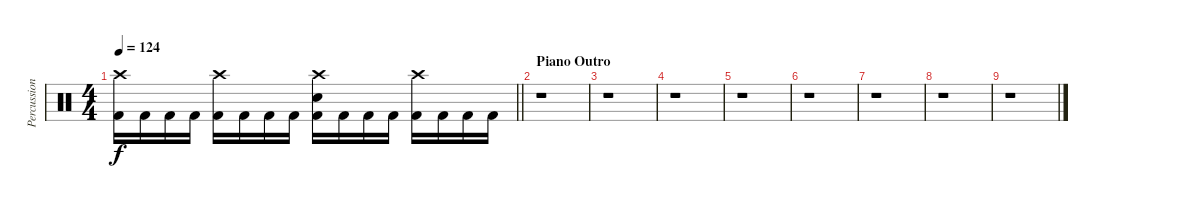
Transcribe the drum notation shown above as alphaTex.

\track ("Percussion" "Percussion") {instrument percussion}
\staff {score}
\articulation defaults
\ts (4 4)
\tempo 124
\clef neutral
\barLineRight lightlight
\ks c
("Crash high (hit)" "Kick (hit) 2").16{dy f} "Kick (hit) 2".16 "Kick (hit) 2".16 "Kick (hit) 2".16 ("Crash high (hit)" "Kick (hit) 2").16 "Kick (hit) 2".16 "Kick (hit) 2".16 "Kick (hit) 2".16 ("Crash high (hit)" "Snare (hit) 2" "Kick (hit) 2").16 "Kick (hit) 2".16 "Kick (hit) 2".16 "Kick (hit) 2".16 ("Crash high (hit)" "Kick (hit) 2").16 "Kick (hit) 2".16 "Kick (hit) 2".16 "Kick (hit) 2".16 |
\section ("" "Piano Outro")
r.1 |
r.1 |
r.1 |
r.1 |
r.1 |
r.1 |
r.1 |
r.1
